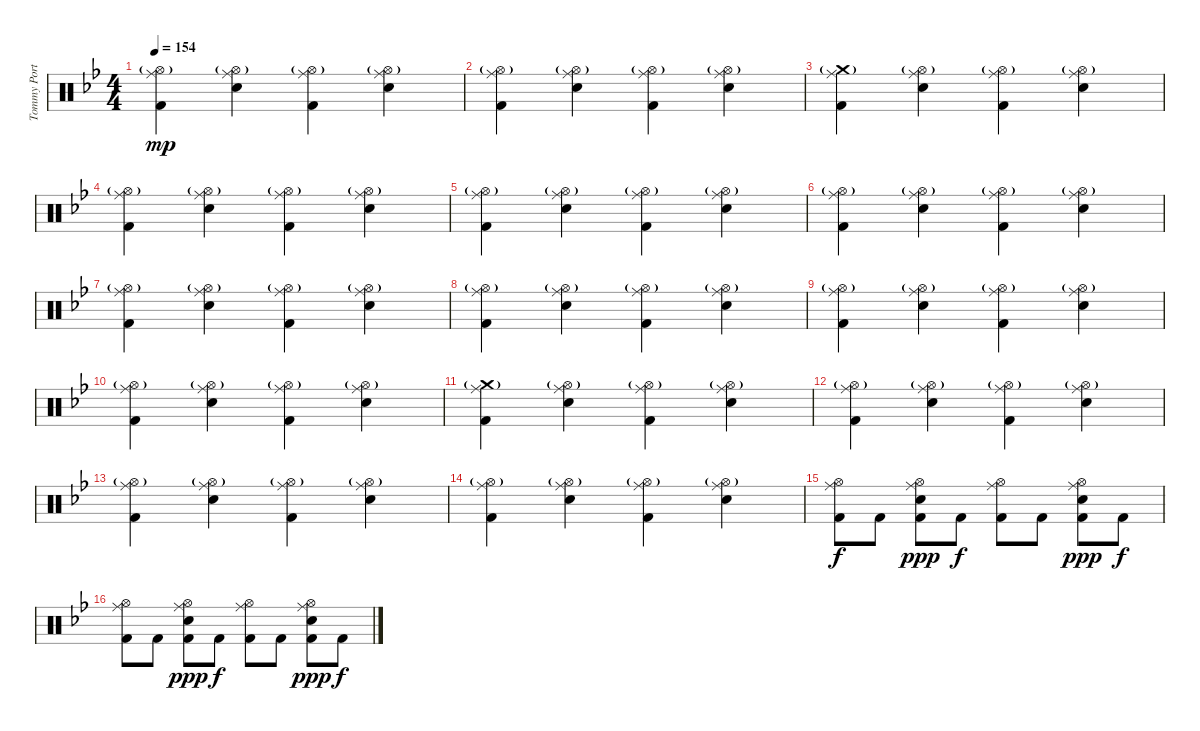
\track ("Tommy Portimo" "Tommy Port") {instrument percussion}
\staff {score}
\articulation defaults
\ts (4 4)
\tempo 154
\clef neutral
\ks gminor
("Hi-Hat (open)"{g} "Ride (middle)" "Kick (hit) 2").4{dy mp} ("Hi-Hat (open)"{g} "Ride (middle)" "Electric Snare (hit)").4 ("Hi-Hat (open)"{g} "Ride (middle)" "Kick (hit) 2").4 ("Hi-Hat (open)"{g} "Ride (middle)" "Electric Snare (hit)").4 |
("Hi-Hat (open)"{g} "Ride (middle)" "Kick (hit) 2").4 ("Hi-Hat (open)"{g} "Ride (middle)" "Electric Snare (hit)").4 ("Hi-Hat (open)"{g} "Ride (middle)" "Kick (hit) 2").4 ("Hi-Hat (open)"{g} "Ride (middle)" "Electric Snare (hit)").4 |
("Crash medium (hit)"{g} "Ride (middle)" "Kick (hit) 2").4 ("Hi-Hat (open)"{g} "Ride (middle)" "Electric Snare (hit)").4 ("Hi-Hat (open)"{g} "Ride (middle)" "Kick (hit) 2").4 ("Hi-Hat (open)"{g} "Ride (middle)" "Electric Snare (hit)").4 |
("Hi-Hat (open)"{g} "Ride (middle)" "Kick (hit) 2").4 ("Hi-Hat (open)"{g} "Ride (middle)" "Electric Snare (hit)").4 ("Hi-Hat (open)"{g} "Ride (middle)" "Kick (hit) 2").4 ("Hi-Hat (open)"{g} "Ride (middle)" "Electric Snare (hit)").4 |
("Hi-Hat (open)"{g} "Ride (middle)" "Kick (hit) 2").4 ("Hi-Hat (open)"{g} "Ride (middle)" "Electric Snare (hit)").4 ("Hi-Hat (open)"{g} "Ride (middle)" "Kick (hit) 2").4 ("Hi-Hat (open)"{g} "Ride (middle)" "Electric Snare (hit)").4 |
("Hi-Hat (open)"{g} "Ride (middle)" "Kick (hit) 2").4 ("Hi-Hat (open)"{g} "Ride (middle)" "Electric Snare (hit)").4 ("Hi-Hat (open)"{g} "Ride (middle)" "Kick (hit) 2").4 ("Hi-Hat (open)"{g} "Ride (middle)" "Electric Snare (hit)").4 |
("Hi-Hat (open)"{g} "Ride (middle)" "Kick (hit) 2").4 ("Hi-Hat (open)"{g} "Ride (middle)" "Electric Snare (hit)").4 ("Hi-Hat (open)"{g} "Ride (middle)" "Kick (hit) 2").4 ("Hi-Hat (open)"{g} "Ride (middle)" "Electric Snare (hit)").4 |
("Hi-Hat (open)"{g} "Ride (middle)" "Kick (hit) 2").4 ("Hi-Hat (open)"{g} "Ride (middle)" "Electric Snare (hit)").4 ("Hi-Hat (open)"{g} "Ride (middle)" "Kick (hit) 2").4 ("Hi-Hat (open)"{g} "Ride (middle)" "Electric Snare (hit)").4 |
("Hi-Hat (open)"{g} "Ride (middle)" "Kick (hit) 2").4 ("Hi-Hat (open)"{g} "Ride (middle)" "Electric Snare (hit)").4 ("Hi-Hat (open)"{g} "Ride (middle)" "Kick (hit) 2").4 ("Hi-Hat (open)"{g} "Ride (middle)" "Electric Snare (hit)").4 |
("Hi-Hat (open)"{g} "Ride (middle)" "Kick (hit) 2").4 ("Hi-Hat (open)"{g} "Ride (middle)" "Electric Snare (hit)").4 ("Hi-Hat (open)"{g} "Ride (middle)" "Kick (hit) 2").4 ("Hi-Hat (open)"{g} "Ride (middle)" "Electric Snare (hit)").4 |
("Crash medium (hit)"{g} "Ride (middle)" "Kick (hit) 2").4 ("Hi-Hat (open)"{g} "Ride (middle)" "Electric Snare (hit)").4 ("Hi-Hat (open)"{g} "Ride (middle)" "Kick (hit) 2").4 ("Hi-Hat (open)"{g} "Ride (middle)" "Electric Snare (hit)").4 |
("Hi-Hat (open)"{g} "Ride (middle)" "Kick (hit) 2").4 ("Hi-Hat (open)"{g} "Ride (middle)" "Electric Snare (hit)").4 ("Hi-Hat (open)"{g} "Ride (middle)" "Kick (hit) 2").4 ("Hi-Hat (open)"{g} "Ride (middle)" "Electric Snare (hit)").4 |
("Hi-Hat (open)"{g} "Ride (middle)" "Kick (hit) 2").4 ("Hi-Hat (open)"{g} "Ride (middle)" "Electric Snare (hit)").4 ("Hi-Hat (open)"{g} "Ride (middle)" "Kick (hit) 2").4 ("Hi-Hat (open)"{g} "Ride (middle)" "Electric Snare (hit)").4 |
("Hi-Hat (open)"{g} "Ride (middle)" "Kick (hit) 2").4 ("Hi-Hat (open)"{g} "Ride (middle)" "Electric Snare (hit)").4 ("Hi-Hat (open)"{g} "Ride (middle)" "Kick (hit) 2").4 ("Hi-Hat (open)"{g} "Ride (middle)" "Electric Snare (hit)").4 |
("Hi-Hat (open)" "Ride (middle)" "Kick (hit) 2").8{dy f} "Kick (hit) 2".8 ("Hi-Hat (open)" "Ride (middle)" "Electric Snare (hit)" "Kick (hit) 2").8{dy ppp} "Kick (hit) 2".8{dy f} ("Hi-Hat (open)" "Ride (middle)" "Kick (hit) 2").8 "Kick (hit) 2".8 ("Hi-Hat (open)" "Ride (middle)" "Electric Snare (hit)" "Kick (hit) 2").8{dy ppp} "Kick (hit) 2".8{dy f} |
("Hi-Hat (open)" "Ride (middle)" "Kick (hit) 2").8 "Kick (hit) 2".8 ("Hi-Hat (open)" "Ride (middle)" "Electric Snare (hit)" "Kick (hit) 2").8{dy ppp} "Kick (hit) 2".8{dy f} ("Hi-Hat (open)" "Ride (middle)" "Kick (hit) 2").8 "Kick (hit) 2".8 ("Hi-Hat (open)" "Ride (middle)" "Electric Snare (hit)" "Kick (hit) 2").8{dy ppp} "Kick (hit) 2".8{dy f}
